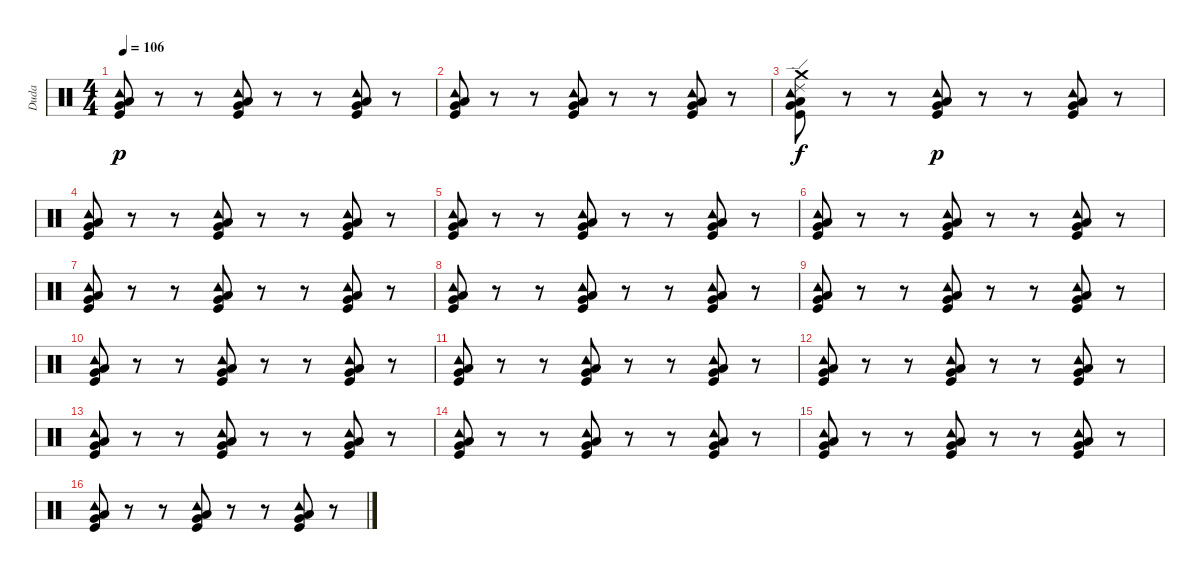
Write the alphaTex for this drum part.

\track ("Duda" "Duda") {instrument percussion}
\staff {score}
\articulation defaults
\ts (4 4)
\tempo 106
\clef neutral
\ks c
("Tambourine (hit)" "Low Floor Tom (hit)" "Very Low Tom (hit)" "Kick (hit)").8{dy p} r.8 r.8 ("Tambourine (hit)" "Low Floor Tom (hit)" "Very Low Tom (hit)" "Kick (hit)").8 r.8 r.8 ("Tambourine (hit)" "Low Floor Tom (hit)" "Very Low Tom (hit)" "Kick (hit)").8 r.8 |
("Tambourine (hit)" "Low Floor Tom (hit)" "Very Low Tom (hit)" "Kick (hit)").8 r.8 r.8 ("Tambourine (hit)" "Low Floor Tom (hit)" "Very Low Tom (hit)" "Kick (hit)").8 r.8 r.8 ("Tambourine (hit)" "Low Floor Tom (hit)" "Very Low Tom (hit)" "Kick (hit)").8 r.8 |
("Crash medium (hit)" "Low Floor Tom (hit)" "Ride (edge) 2" "Very Low Tom (hit)" "Tambourine (hit)" "Kick (hit)").8{dy f} r.8 r.8 ("Tambourine (hit)" "Low Floor Tom (hit)" "Very Low Tom (hit)" "Kick (hit)").8{dy p} r.8 r.8 ("Tambourine (hit)" "Low Floor Tom (hit)" "Very Low Tom (hit)" "Kick (hit)").8 r.8 |
("Tambourine (hit)" "Low Floor Tom (hit)" "Very Low Tom (hit)" "Kick (hit)").8 r.8 r.8 ("Tambourine (hit)" "Low Floor Tom (hit)" "Very Low Tom (hit)" "Kick (hit)").8 r.8 r.8 ("Tambourine (hit)" "Low Floor Tom (hit)" "Very Low Tom (hit)" "Kick (hit)").8 r.8 |
("Tambourine (hit)" "Low Floor Tom (hit)" "Very Low Tom (hit)" "Kick (hit)").8 r.8 r.8 ("Tambourine (hit)" "Low Floor Tom (hit)" "Very Low Tom (hit)" "Kick (hit)").8 r.8 r.8 ("Tambourine (hit)" "Low Floor Tom (hit)" "Very Low Tom (hit)" "Kick (hit)").8 r.8 |
("Tambourine (hit)" "Low Floor Tom (hit)" "Very Low Tom (hit)" "Kick (hit)").8 r.8 r.8 ("Tambourine (hit)" "Low Floor Tom (hit)" "Very Low Tom (hit)" "Kick (hit)").8 r.8 r.8 ("Tambourine (hit)" "Low Floor Tom (hit)" "Very Low Tom (hit)" "Kick (hit)").8 r.8 |
("Tambourine (hit)" "Low Floor Tom (hit)" "Very Low Tom (hit)" "Kick (hit)").8 r.8 r.8 ("Tambourine (hit)" "Low Floor Tom (hit)" "Very Low Tom (hit)" "Kick (hit)").8 r.8 r.8 ("Tambourine (hit)" "Low Floor Tom (hit)" "Very Low Tom (hit)" "Kick (hit)").8 r.8 |
("Tambourine (hit)" "Low Floor Tom (hit)" "Very Low Tom (hit)" "Kick (hit)").8 r.8 r.8 ("Tambourine (hit)" "Low Floor Tom (hit)" "Very Low Tom (hit)" "Kick (hit)").8 r.8 r.8 ("Tambourine (hit)" "Low Floor Tom (hit)" "Very Low Tom (hit)" "Kick (hit)").8 r.8 |
("Tambourine (hit)" "Low Floor Tom (hit)" "Very Low Tom (hit)" "Kick (hit)").8 r.8 r.8 ("Tambourine (hit)" "Low Floor Tom (hit)" "Very Low Tom (hit)" "Kick (hit)").8 r.8 r.8 ("Tambourine (hit)" "Low Floor Tom (hit)" "Very Low Tom (hit)" "Kick (hit)").8 r.8 |
("Tambourine (hit)" "Low Floor Tom (hit)" "Very Low Tom (hit)" "Kick (hit)").8 r.8 r.8 ("Tambourine (hit)" "Low Floor Tom (hit)" "Very Low Tom (hit)" "Kick (hit)").8 r.8 r.8 ("Tambourine (hit)" "Low Floor Tom (hit)" "Very Low Tom (hit)" "Kick (hit)").8 r.8 |
("Tambourine (hit)" "Low Floor Tom (hit)" "Very Low Tom (hit)" "Kick (hit)").8 r.8 r.8 ("Tambourine (hit)" "Low Floor Tom (hit)" "Very Low Tom (hit)" "Kick (hit)").8 r.8 r.8 ("Tambourine (hit)" "Low Floor Tom (hit)" "Very Low Tom (hit)" "Kick (hit)").8 r.8 |
("Tambourine (hit)" "Low Floor Tom (hit)" "Very Low Tom (hit)" "Kick (hit)").8 r.8 r.8 ("Tambourine (hit)" "Low Floor Tom (hit)" "Very Low Tom (hit)" "Kick (hit)").8 r.8 r.8 ("Tambourine (hit)" "Low Floor Tom (hit)" "Very Low Tom (hit)" "Kick (hit)").8 r.8 |
("Tambourine (hit)" "Low Floor Tom (hit)" "Very Low Tom (hit)" "Kick (hit)").8 r.8 r.8 ("Tambourine (hit)" "Low Floor Tom (hit)" "Very Low Tom (hit)" "Kick (hit)").8 r.8 r.8 ("Tambourine (hit)" "Low Floor Tom (hit)" "Very Low Tom (hit)" "Kick (hit)").8 r.8 |
("Tambourine (hit)" "Low Floor Tom (hit)" "Very Low Tom (hit)" "Kick (hit)").8 r.8 r.8 ("Tambourine (hit)" "Low Floor Tom (hit)" "Very Low Tom (hit)" "Kick (hit)").8 r.8 r.8 ("Tambourine (hit)" "Low Floor Tom (hit)" "Very Low Tom (hit)" "Kick (hit)").8 r.8 |
("Tambourine (hit)" "Low Floor Tom (hit)" "Very Low Tom (hit)" "Kick (hit)").8 r.8 r.8 ("Tambourine (hit)" "Low Floor Tom (hit)" "Very Low Tom (hit)" "Kick (hit)").8 r.8 r.8 ("Tambourine (hit)" "Low Floor Tom (hit)" "Very Low Tom (hit)" "Kick (hit)").8 r.8 |
("Tambourine (hit)" "Low Floor Tom (hit)" "Very Low Tom (hit)" "Kick (hit)").8 r.8 r.8 ("Tambourine (hit)" "Low Floor Tom (hit)" "Very Low Tom (hit)" "Kick (hit)").8 r.8 r.8 ("Tambourine (hit)" "Low Floor Tom (hit)" "Very Low Tom (hit)" "Kick (hit)").8 r.8
